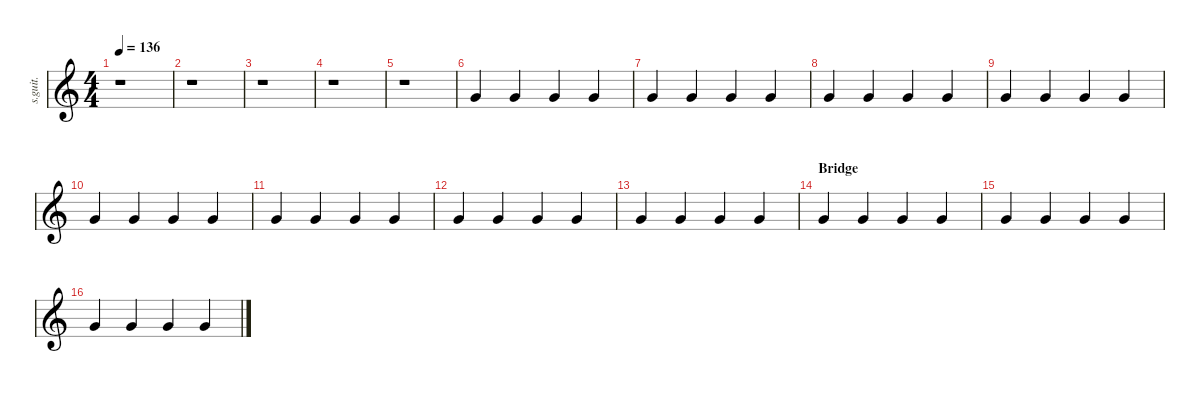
\defaultSystemsLayout 4
\hideDynamics
\bracketExtendMode nobrackets
\track ("Shawn Crahan " "s.guit.") {instrument percussion}
\staff {score}
\articulation defaults
\ts (4 4)
\tempo 136
\clef g2
\ks c
r.1{dy fff} |
r.1 |
r.1 |
r.1 |
r.1 |
"Very Low Tom (hit)".4{lyrics (0 "") lyrics (1 "") lyrics (2 "") lyrics (3 "") lyrics (4 "")} "Very Low Tom (hit)".4{lyrics (0 "") lyrics (1 "") lyrics (2 "") lyrics (3 "") lyrics (4 "")} "Very Low Tom (hit)".4{lyrics (0 "") lyrics (1 "") lyrics (2 "") lyrics (3 "") lyrics (4 "")} "Very Low Tom (hit)".4{lyrics (0 "") lyrics (1 "") lyrics (2 "") lyrics (3 "") lyrics (4 "")} |
"Very Low Tom (hit)".4{lyrics (0 "") lyrics (1 "") lyrics (2 "") lyrics (3 "") lyrics (4 "")} "Very Low Tom (hit)".4{lyrics (0 "") lyrics (1 "") lyrics (2 "") lyrics (3 "") lyrics (4 "")} "Very Low Tom (hit)".4{lyrics (0 "") lyrics (1 "") lyrics (2 "") lyrics (3 "") lyrics (4 "")} "Very Low Tom (hit)".4{lyrics (0 "") lyrics (1 "") lyrics (2 "") lyrics (3 "") lyrics (4 "")} |
"Very Low Tom (hit)".4{lyrics (0 "") lyrics (1 "") lyrics (2 "") lyrics (3 "") lyrics (4 "")} "Very Low Tom (hit)".4{lyrics (0 "") lyrics (1 "") lyrics (2 "") lyrics (3 "") lyrics (4 "")} "Very Low Tom (hit)".4{lyrics (0 "") lyrics (1 "") lyrics (2 "") lyrics (3 "") lyrics (4 "")} "Very Low Tom (hit)".4{lyrics (0 "") lyrics (1 "") lyrics (2 "") lyrics (3 "") lyrics (4 "")} |
"Very Low Tom (hit)".4{lyrics (0 "") lyrics (1 "") lyrics (2 "") lyrics (3 "") lyrics (4 "")} "Very Low Tom (hit)".4{lyrics (0 "") lyrics (1 "") lyrics (2 "") lyrics (3 "") lyrics (4 "")} "Very Low Tom (hit)".4{lyrics (0 "") lyrics (1 "") lyrics (2 "") lyrics (3 "") lyrics (4 "")} "Very Low Tom (hit)".4{lyrics (0 "") lyrics (1 "") lyrics (2 "") lyrics (3 "") lyrics (4 "")} |
"Very Low Tom (hit)".4{lyrics (0 "") lyrics (1 "") lyrics (2 "") lyrics (3 "") lyrics (4 "")} "Very Low Tom (hit)".4{lyrics (0 "") lyrics (1 "") lyrics (2 "") lyrics (3 "") lyrics (4 "")} "Very Low Tom (hit)".4{lyrics (0 "") lyrics (1 "") lyrics (2 "") lyrics (3 "") lyrics (4 "")} "Very Low Tom (hit)".4{lyrics (0 "") lyrics (1 "") lyrics (2 "") lyrics (3 "") lyrics (4 "")} |
"Very Low Tom (hit)".4{lyrics (0 "") lyrics (1 "") lyrics (2 "") lyrics (3 "") lyrics (4 "")} "Very Low Tom (hit)".4{lyrics (0 "") lyrics (1 "") lyrics (2 "") lyrics (3 "") lyrics (4 "")} "Very Low Tom (hit)".4{lyrics (0 "") lyrics (1 "") lyrics (2 "") lyrics (3 "") lyrics (4 "")} "Very Low Tom (hit)".4{lyrics (0 "") lyrics (1 "") lyrics (2 "") lyrics (3 "") lyrics (4 "")} |
"Very Low Tom (hit)".4{lyrics (0 "") lyrics (1 "") lyrics (2 "") lyrics (3 "") lyrics (4 "")} "Very Low Tom (hit)".4{lyrics (0 "") lyrics (1 "") lyrics (2 "") lyrics (3 "") lyrics (4 "")} "Very Low Tom (hit)".4{lyrics (0 "") lyrics (1 "") lyrics (2 "") lyrics (3 "") lyrics (4 "")} "Very Low Tom (hit)".4{lyrics (0 "") lyrics (1 "") lyrics (2 "") lyrics (3 "") lyrics (4 "")} |
"Very Low Tom (hit)".4{lyrics (0 "") lyrics (1 "") lyrics (2 "") lyrics (3 "") lyrics (4 "")} "Very Low Tom (hit)".4{lyrics (0 "") lyrics (1 "") lyrics (2 "") lyrics (3 "") lyrics (4 "")} "Very Low Tom (hit)".4{lyrics (0 "") lyrics (1 "") lyrics (2 "") lyrics (3 "") lyrics (4 "")} "Very Low Tom (hit)".4{lyrics (0 "") lyrics (1 "") lyrics (2 "") lyrics (3 "") lyrics (4 "")} |
\section ("" "Bridge")
"Very Low Tom (hit)".4{lyrics (0 "") lyrics (1 "") lyrics (2 "") lyrics (3 "") lyrics (4 "")} "Very Low Tom (hit)".4{lyrics (0 "") lyrics (1 "") lyrics (2 "") lyrics (3 "") lyrics (4 "")} "Very Low Tom (hit)".4{lyrics (0 "") lyrics (1 "") lyrics (2 "") lyrics (3 "") lyrics (4 "")} "Very Low Tom (hit)".4{lyrics (0 "") lyrics (1 "") lyrics (2 "") lyrics (3 "") lyrics (4 "")} |
"Very Low Tom (hit)".4{lyrics (0 "") lyrics (1 "") lyrics (2 "") lyrics (3 "") lyrics (4 "")} "Very Low Tom (hit)".4{lyrics (0 "") lyrics (1 "") lyrics (2 "") lyrics (3 "") lyrics (4 "")} "Very Low Tom (hit)".4{lyrics (0 "") lyrics (1 "") lyrics (2 "") lyrics (3 "") lyrics (4 "")} "Very Low Tom (hit)".4{lyrics (0 "") lyrics (1 "") lyrics (2 "") lyrics (3 "") lyrics (4 "")} |
"Very Low Tom (hit)".4{lyrics (0 "") lyrics (1 "") lyrics (2 "") lyrics (3 "") lyrics (4 "")} "Very Low Tom (hit)".4{lyrics (0 "") lyrics (1 "") lyrics (2 "") lyrics (3 "") lyrics (4 "")} "Very Low Tom (hit)".4{lyrics (0 "") lyrics (1 "") lyrics (2 "") lyrics (3 "") lyrics (4 "")} "Very Low Tom (hit)".4{lyrics (0 "") lyrics (1 "") lyrics (2 "") lyrics (3 "") lyrics (4 "")}
